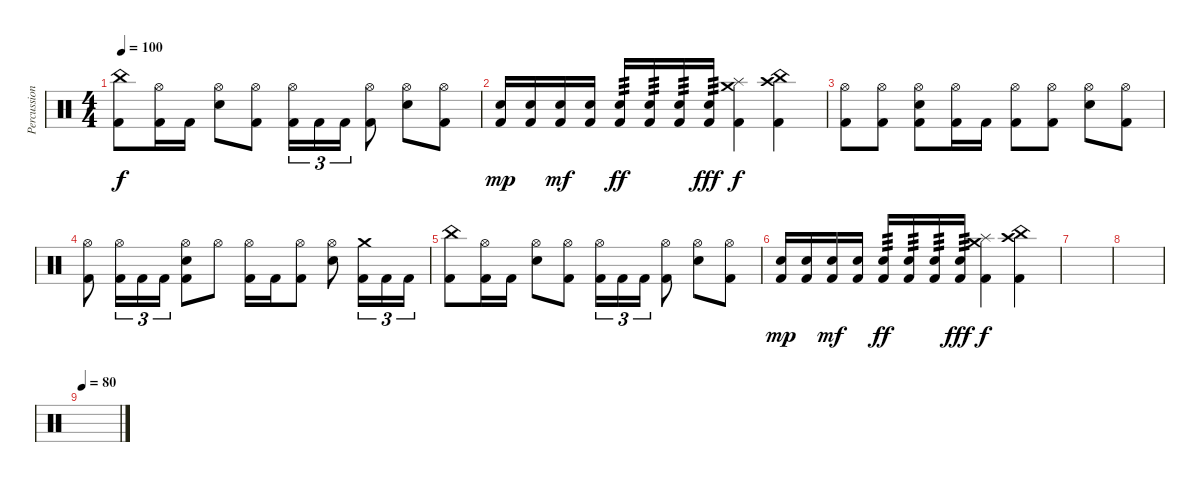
\track ("Percussion" "Percussion") {instrument percussion}
\staff {score}
\articulation defaults
\ts (4 4)
\tempo 100
\clef neutral
\ks c
("China (hit)" "Kick (hit) 2").8{dy f} ("Hi-Hat (open)" "Kick (hit) 2").16 "Kick (hit) 2".16 ("Hi-Hat (open)" "Electric Snare (hit)").8 ("Hi-Hat (open)" "Kick (hit) 2").8 ("Hi-Hat (open)" "Kick (hit) 2").16{tu (3 2)} "Kick (hit) 2".16{tu (3 2)} "Kick (hit) 2".16{tu (3 2)} ("Hi-Hat (open)" "Kick (hit) 2").8 ("Hi-Hat (open)" "Electric Snare (hit)").8 ("Hi-Hat (open)" "Kick (hit) 2").8 |
("Electric Snare (hit)" "Kick (hit) 2").16{dy mp} ("Electric Snare (hit)" "Kick (hit) 2").16 ("Electric Snare (hit)" "Kick (hit) 2").16{dy mf} ("Electric Snare (hit)" "Kick (hit) 2").16 ("Electric Snare (hit)" "Kick (hit) 2").16{tp 3 dy ff} ("Electric Snare (hit)" "Kick (hit) 2").16{tp 3} ("Electric Snare (hit)" "Kick (hit) 2").16{tp 3} ("Electric Snare (hit)" "Kick (hit) 2").16{tp 3 dy fff} ("Crash medium (hit)" "Splash (hit)" "Kick (hit) 2").4{dy f} ("Crash high (hit)" "China (hit)" "Kick (hit) 2").4 |
("Hi-Hat (open)" "Kick (hit) 2").8 ("Hi-Hat (open)" "Kick (hit) 2").8 ("Hi-Hat (open)" "Electric Snare (hit)" "Kick (hit) 2").8 ("Hi-Hat (open)" "Kick (hit) 2").16 "Kick (hit) 2".16 ("Hi-Hat (open)" "Kick (hit) 2").8 ("Hi-Hat (open)" "Kick (hit) 2").8 ("Hi-Hat (open)" "Electric Snare (hit)").8 ("Hi-Hat (open)" "Kick (hit) 2").8 |
("Hi-Hat (open)" "Kick (hit) 2").8 ("Hi-Hat (open)" "Kick (hit) 2").16{tu (3 2)} "Kick (hit) 2".16{tu (3 2)} "Kick (hit) 2".16{tu (3 2)} ("Hi-Hat (open)" "Electric Snare (hit)" "Kick (hit) 2").8 "Hi-Hat (open)".8 ("Hi-Hat (open)" "Kick (hit) 2").16 "Kick (hit) 2".16 ("Hi-Hat (open)" "Kick (hit) 2").8 ("Hi-Hat (open)" "Electric Snare (hit)").8 ("Crash medium (hit)" "Kick (hit) 2").16{tu (3 2)} "Kick (hit) 2".16{tu (3 2)} "Kick (hit) 2".16{tu (3 2)} |
("China (hit)" "Kick (hit) 2").8 ("Hi-Hat (open)" "Kick (hit) 2").16 "Kick (hit) 2".16 ("Hi-Hat (open)" "Electric Snare (hit)").8 ("Hi-Hat (open)" "Kick (hit) 2").8 ("Hi-Hat (open)" "Kick (hit) 2").16{tu (3 2)} "Kick (hit) 2".16{tu (3 2)} "Kick (hit) 2".16{tu (3 2)} ("Hi-Hat (open)" "Kick (hit) 2").8 ("Hi-Hat (open)" "Electric Snare (hit)").8 ("Hi-Hat (open)" "Kick (hit) 2").8 |
("Electric Snare (hit)" "Kick (hit) 2").16{dy mp} ("Electric Snare (hit)" "Kick (hit) 2").16 ("Electric Snare (hit)" "Kick (hit) 2").16{dy mf} ("Electric Snare (hit)" "Kick (hit) 2").16 ("Electric Snare (hit)" "Kick (hit) 2").16{tp 3 dy ff} ("Electric Snare (hit)" "Kick (hit) 2").16{tp 3} ("Electric Snare (hit)" "Kick (hit) 2").16{tp 3} ("Electric Snare (hit)" "Kick (hit) 2").16{tp 3 dy fff} ("Crash medium (hit)" "Splash (hit)" "Kick (hit) 2").4{dy f} ("Crash high (hit)" "China (hit)" "Kick (hit) 2").4 |
|
|
\tempo 80
